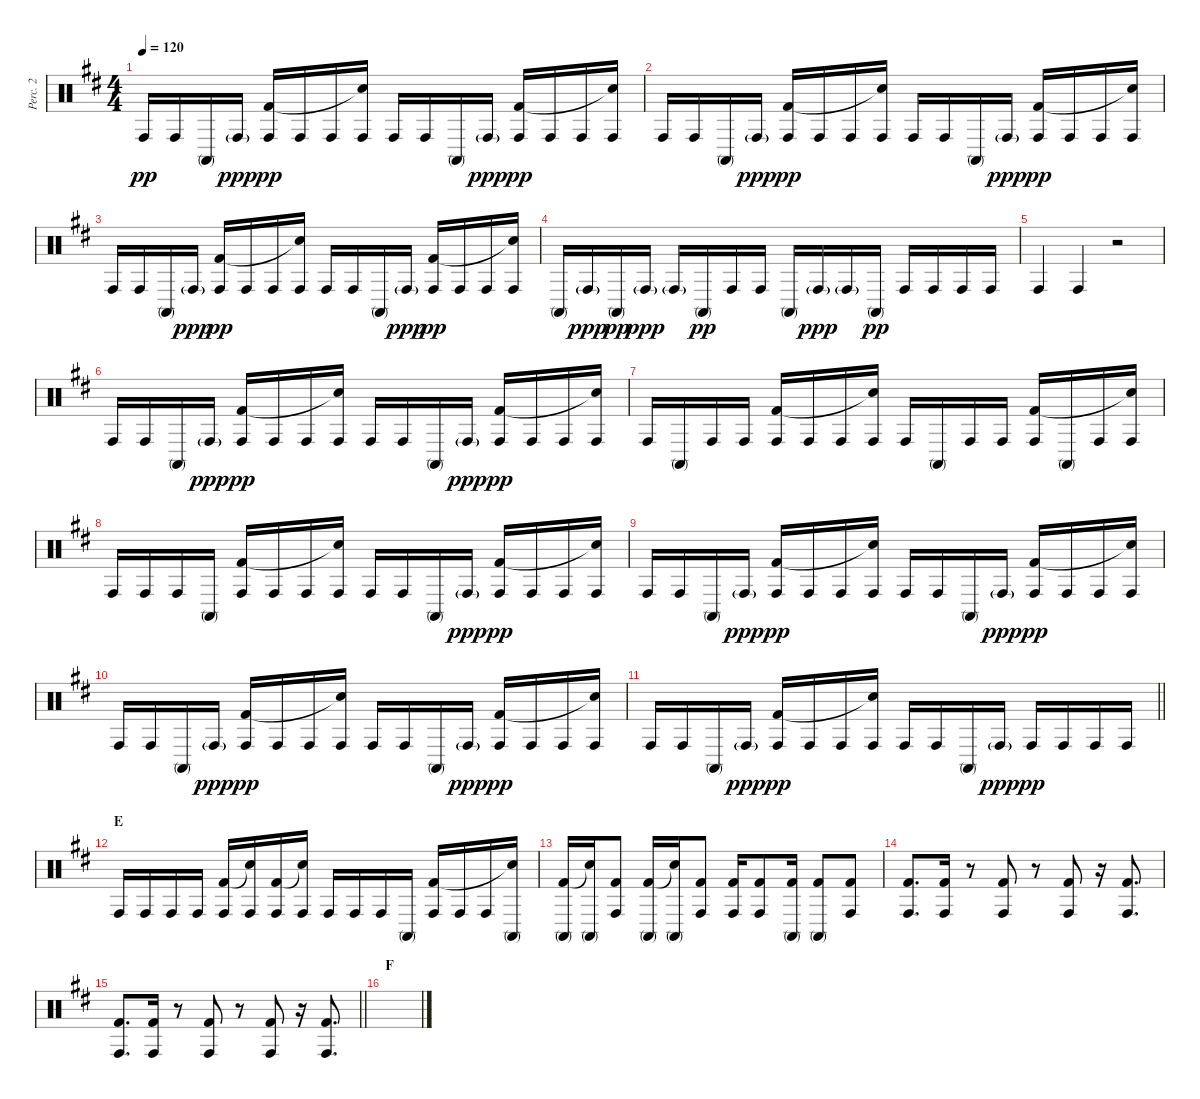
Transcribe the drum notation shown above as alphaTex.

\track ("Perc. 2" "Perc. 2") {instrument percussion}
\staff {score}
\articulation defaults
\ts (4 4)
\tempo 120
\clef neutral
\ks d "Conga high (hit)".16{dy pp} "Conga high (hit)".16 "Conga high (mute)".16 "Conga high (hit)"{g}.16{dy ppp}
("Conga high (hit)" "Kick (hit) 2").16{dy pp} "Conga high (hit)".16 "Conga high (hit)".16 ("Conga high (hit)" "Snare (hit)"{t}).16 "Conga high (hit)".16 "Conga high (hit)".16 "Conga high (mute)".16 "Conga high (hit)"{g}.16{dy ppp} ("Conga high (hit)" "Kick (hit) 2").16{dy pp} "Conga high (hit)".16 "Conga high (hit)".16 ("Conga high (hit)" "Snare (hit)"{t}).16 |
"Conga high (hit)".16 "Conga high (hit)".16 "Conga high (mute)".16 "Conga high (hit)"{g}.16{dy ppp} ("Conga high (hit)" "Kick (hit) 2").16{dy pp} "Conga high (hit)".16 "Conga high (hit)".16 ("Conga high (hit)" "Snare (hit)"{t}).16 "Conga high (hit)".16 "Conga high (hit)".16 "Conga high (mute)".16 "Conga high (hit)"{g}.16{dy ppp} ("Conga high (hit)" "Kick (hit) 2").16{dy pp} "Conga high (hit)".16 "Conga high (hit)".16 ("Conga high (hit)" "Snare (hit)"{t}).16 |
"Conga high (hit)".16 "Conga high (hit)".16 "Conga high (mute)".16 "Conga high (hit)"{g}.16{dy ppp} ("Conga high (hit)" "Kick (hit) 2").16{dy pp} "Conga high (hit)".16 "Conga high (hit)".16 ("Conga high (hit)" "Snare (hit)"{t}).16 "Conga high (hit)".16 "Conga high (hit)".16 "Conga high (mute)".16 "Conga high (hit)"{g}.16{dy ppp} ("Conga high (hit)" "Kick (hit) 2").16{dy pp} "Conga high (hit)".16 "Conga high (hit)".16 ("Conga high (hit)" "Snare (hit)"{t}).16 |
"Conga high (mute)".16 "Conga high (hit)"{g}.16{dy ppp} "Conga high (mute)".16{dy pp} "Conga high (hit)"{g}.16{dy ppp} "Conga high (hit)"{g}.16 "Conga high (mute)".16{dy pp} "Conga high (hit)".16 "Conga high (hit)".16 "Conga high (mute)".16 "Conga high (hit)"{g}.16{dy ppp} "Conga high (hit)"{g}.16 "Conga high (mute)".16{dy pp} "Conga high (hit)".16 "Conga high (hit)".16 "Conga high (hit)".16 "Conga high (hit)".16 |
"Conga high (hit)".4 "Conga high (hit)".4 r.2 |
"Conga high (hit)".16 "Conga high (hit)".16 "Conga high (mute)".16 "Conga high (hit)"{g}.16{dy ppp} ("Conga high (hit)" "Kick (hit) 2").16{dy pp} "Conga high (hit)".16 "Conga high (hit)".16 ("Conga high (hit)" "Snare (hit)"{t}).16 "Conga high (hit)".16 "Conga high (hit)".16 "Conga high (mute)".16 "Conga high (hit)"{g}.16{dy ppp} ("Conga high (hit)" "Kick (hit) 2").16{dy pp} "Conga high (hit)".16 "Conga high (hit)".16 ("Conga high (hit)" "Snare (hit)"{t}).16 |
"Conga high (hit)".16 "Conga high (mute)".16 "Conga high (hit)".16 "Conga high (hit)".16 ("Conga high (hit)" "Kick (hit) 2").16 "Conga high (hit)".16 "Conga high (hit)".16 ("Conga high (hit)" "Snare (hit)"{t}).16 "Conga high (hit)".16 "Conga high (mute)".16 "Conga high (hit)".16 "Conga high (hit)".16 ("Conga high (hit)" "Kick (hit) 2").16 "Conga high (mute)".16 "Conga high (hit)".16 ("Conga high (hit)" "Snare (hit)"{t}).16 |
"Conga high (hit)".16 "Conga high (hit)".16 "Conga high (hit)".16 "Conga high (mute)".16 ("Conga high (hit)" "Kick (hit) 2").16 "Conga high (hit)".16 "Conga high (hit)".16 ("Conga high (hit)" "Snare (hit)"{t}).16 "Conga high (hit)".16 "Conga high (hit)".16 "Conga high (mute)".16 "Conga high (hit)"{g}.16{dy ppp} ("Conga high (hit)" "Kick (hit) 2").16{dy pp} "Conga high (hit)".16 "Conga high (hit)".16 ("Conga high (hit)" "Snare (hit)"{t}).16 |
"Conga high (hit)".16 "Conga high (hit)".16 "Conga high (mute)".16 "Conga high (hit)"{g}.16{dy ppp} ("Conga high (hit)" "Kick (hit) 2").16{dy pp} "Conga high (hit)".16 "Conga high (hit)".16 ("Conga high (hit)" "Snare (hit)"{t}).16 "Conga high (hit)".16 "Conga high (hit)".16 "Conga high (mute)".16 "Conga high (hit)"{g}.16{dy ppp} ("Conga high (hit)" "Kick (hit) 2").16{dy pp} "Conga high (hit)".16 "Conga high (hit)".16 ("Conga high (hit)" "Snare (hit)"{t}).16 |
"Conga high (hit)".16 "Conga high (hit)".16 "Conga high (mute)".16 "Conga high (hit)"{g}.16{dy ppp} ("Conga high (hit)" "Kick (hit) 2").16{dy pp} "Conga high (hit)".16 "Conga high (hit)".16 ("Conga high (hit)" "Snare (hit)"{t}).16 "Conga high (hit)".16 "Conga high (hit)".16 "Conga high (mute)".16 "Conga high (hit)"{g}.16{dy ppp} ("Conga high (hit)" "Kick (hit) 2").16{dy pp} "Conga high (hit)".16 "Conga high (hit)".16 ("Conga high (hit)" "Snare (hit)"{t}).16 |
\barLineRight lightlight "Conga high (hit)".16 "Conga high (hit)".16 "Conga high (mute)".16 "Conga high (hit)"{g}.16{dy ppp}
("Conga high (hit)" "Kick (hit) 2").16{dy pp} "Conga high (hit)".16 "Conga high (hit)".16 ("Conga high (hit)" "Snare (hit)"{t}).16 "Conga high (hit)".16 "Conga high (hit)".16 "Conga high (mute)".16 "Conga high (hit)"{g}.16{dy ppp} "Conga high (hit)".16{dy pp} "Conga high (hit)".16 "Conga high (hit)".16 "Conga high (hit)".16 |
\section ("" "E")
"Conga high (hit)".16 "Conga high (hit)".16 "Conga high (hit)".16 "Conga high (hit)".16 ("Conga high (hit)" "Kick (hit) 2").16 ("Conga high (hit)" "Snare (hit)"{t}).16 ("Conga high (hit)" "Kick (hit) 2").16 ("Conga high (hit)" "Snare (hit)"{t}).16 "Conga high (hit)".16 "Conga high (hit)".16 "Conga high (hit)".16 "Conga high (mute)".16 ("Conga high (hit)" "Kick (hit) 2").16 "Conga high (hit)".16 "Conga high (hit)".16 ("Conga high (mute)" "Snare (hit)"{t}).16 |
("Conga high (mute)" "Kick (hit) 2").16 ("Conga high (mute)" "Snare (hit)"{t}).16 ("Conga high (hit)" "Kick (hit) 2").8 ("Conga high (mute)" "Kick (hit) 2").16 ("Conga high (mute)" "Snare (hit)"{t}).16 ("Conga high (hit)" "Kick (hit) 2").8 ("Conga high (hit)" "Kick (hit) 2").16 ("Conga high (hit)" "Kick (hit) 2").8 ("Conga high (mute)" "Kick (hit) 2").16 ("Conga high (mute)" "Kick (hit) 2").8 ("Conga high (hit)" "Kick (hit) 2").8 |
("Conga high (hit)" "Kick (hit) 2").8{d} ("Conga high (hit)" "Kick (hit) 2").16 r.8 ("Conga high (hit)" "Kick (hit) 2").8 r.8 ("Conga high (hit)" "Kick (hit) 2").8 r.16 ("Conga high (hit)" "Kick (hit) 2").8{d} |
\barLineRight lightlight
("Conga high (hit)" "Kick (hit) 2").8{d} ("Conga high (hit)" "Kick (hit) 2").16 r.8 ("Conga high (hit)" "Kick (hit) 2").8 r.8 ("Conga high (hit)" "Kick (hit) 2").8 r.16 ("Conga high (hit)" "Kick (hit) 2").8{d} |
\section ("" "F")
